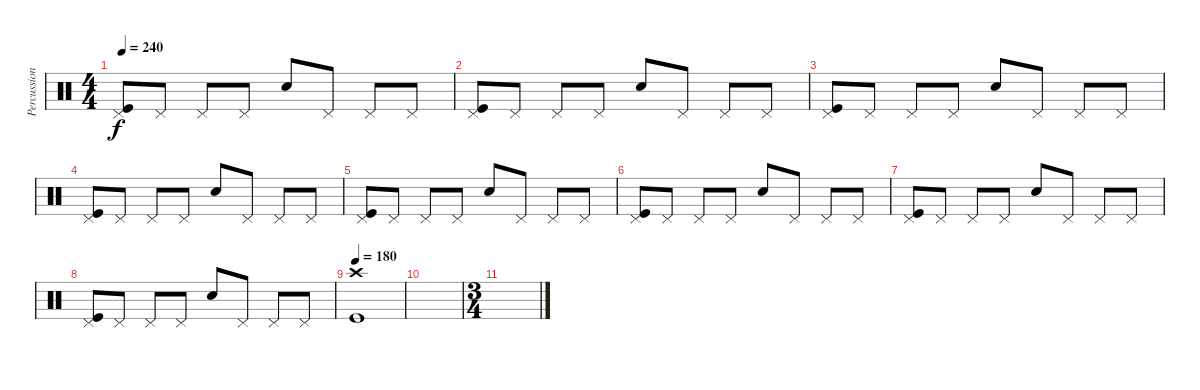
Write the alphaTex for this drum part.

\track ("Percussion" "Percussion") {instrument percussion}
\staff {score}
\articulation defaults
\ts (4 4)
\tempo 200
\tempo 240
\clef neutral
\ks c
("Pedal Hi-Hat (hit)" "Kick (hit)").8{dy f} "Pedal Hi-Hat (hit)".8 "Pedal Hi-Hat (hit)".8 "Pedal Hi-Hat (hit)".8 "Snare (hit) 2".8 "Pedal Hi-Hat (hit)".8 "Pedal Hi-Hat (hit)".8 "Pedal Hi-Hat (hit)".8 |
("Pedal Hi-Hat (hit)" "Kick (hit)").8 "Pedal Hi-Hat (hit)".8 "Pedal Hi-Hat (hit)".8 "Pedal Hi-Hat (hit)".8 "Snare (hit) 2".8 "Pedal Hi-Hat (hit)".8 "Pedal Hi-Hat (hit)".8 "Pedal Hi-Hat (hit)".8 |
("Pedal Hi-Hat (hit)" "Kick (hit)").8 "Pedal Hi-Hat (hit)".8 "Pedal Hi-Hat (hit)".8 "Pedal Hi-Hat (hit)".8 "Snare (hit) 2".8 "Pedal Hi-Hat (hit)".8 "Pedal Hi-Hat (hit)".8 "Pedal Hi-Hat (hit)".8 |
("Pedal Hi-Hat (hit)" "Kick (hit)").8 "Pedal Hi-Hat (hit)".8 "Pedal Hi-Hat (hit)".8 "Pedal Hi-Hat (hit)".8 "Snare (hit) 2".8 "Pedal Hi-Hat (hit)".8 "Pedal Hi-Hat (hit)".8 "Pedal Hi-Hat (hit)".8 |
("Pedal Hi-Hat (hit)" "Kick (hit)").8 "Pedal Hi-Hat (hit)".8 "Pedal Hi-Hat (hit)".8 "Pedal Hi-Hat (hit)".8 "Snare (hit) 2".8 "Pedal Hi-Hat (hit)".8 "Pedal Hi-Hat (hit)".8 "Pedal Hi-Hat (hit)".8 |
("Pedal Hi-Hat (hit)" "Kick (hit)").8 "Pedal Hi-Hat (hit)".8 "Pedal Hi-Hat (hit)".8 "Pedal Hi-Hat (hit)".8 "Snare (hit) 2".8 "Pedal Hi-Hat (hit)".8 "Pedal Hi-Hat (hit)".8 "Pedal Hi-Hat (hit)".8 |
("Pedal Hi-Hat (hit)" "Kick (hit)").8 "Pedal Hi-Hat (hit)".8 "Pedal Hi-Hat (hit)".8 "Pedal Hi-Hat (hit)".8 "Snare (hit) 2".8 "Pedal Hi-Hat (hit)".8 "Pedal Hi-Hat (hit)".8 "Pedal Hi-Hat (hit)".8 |
("Pedal Hi-Hat (hit)" "Kick (hit)").8 "Pedal Hi-Hat (hit)".8 "Pedal Hi-Hat (hit)".8 "Pedal Hi-Hat (hit)".8 "Snare (hit) 2".8 "Pedal Hi-Hat (hit)".8 "Pedal Hi-Hat (hit)".8 "Pedal Hi-Hat (hit)".8 |
\tempo 180
("Crash high (hit)" "Kick (hit)").1 |
|
\ts (3 4)
